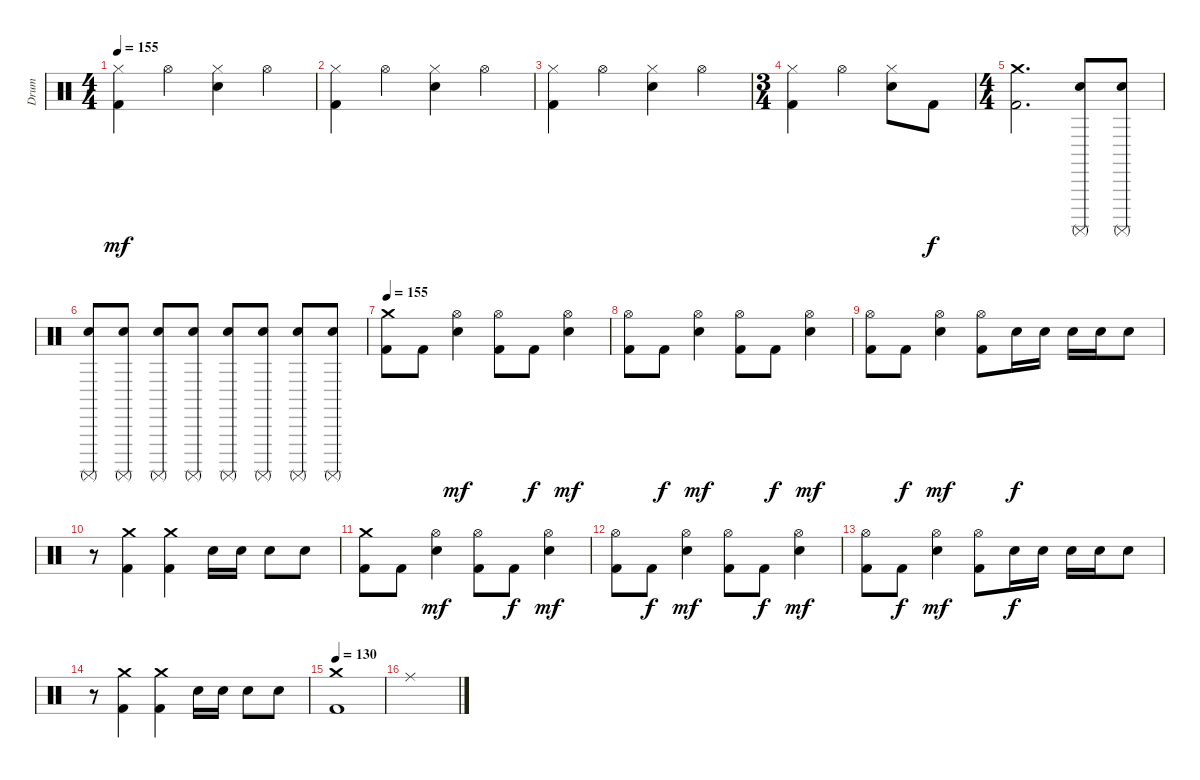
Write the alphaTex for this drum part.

\track ("Drum" "Drum") {instrument percussion}
\staff {score}
\articulation defaults
\ts (4 4)
\tempo 155
\clef neutral
\ks c
("Hi-Hat (closed)" "Kick (hit) 2").4{dy mf} "Hi-Hat (open)".4 ("Hi-Hat (closed)" "Snare (hit) 2").4 "Hi-Hat (open)".4 |
("Hi-Hat (closed)" "Kick (hit) 2").4 "Hi-Hat (open)".4 ("Hi-Hat (closed)" "Snare (hit) 2").4 "Hi-Hat (open)".4 |
("Hi-Hat (closed)" "Kick (hit) 2").4 "Hi-Hat (open)".4 ("Hi-Hat (closed)" "Snare (hit) 2").4 "Hi-Hat (open)".4 |
\ts (3 4)
("Hi-Hat (closed)" "Kick (hit) 2").4 "Hi-Hat (open)".4 ("Hi-Hat (closed)" "Snare (hit) 2").8 "Kick (hit) 2".8{dy f} |
\ts (4 4)
("Crash medium (hit)" "Kick (hit) 2").2{d} ("Surdo (mute)" "Snare (hit) 2").8 ("Surdo (mute)" "Snare (hit) 2").8 |
("Surdo (mute)" "Snare (hit) 2").8 ("Surdo (mute)" "Snare (hit) 2").8 ("Surdo (mute)" "Snare (hit) 2").8 ("Surdo (mute)" "Snare (hit) 2").8 ("Surdo (mute)" "Snare (hit) 2").8 ("Surdo (mute)" "Snare (hit) 2").8 ("Surdo (mute)" "Snare (hit) 2").8 ("Surdo (mute)" "Snare (hit) 2").8 |
\tempo 155
("Crash medium (hit)" "Kick (hit) 2").8 "Kick (hit) 2".8 ("Hi-Hat (open)" "Snare (hit) 2").4{dy mf} ("Hi-Hat (open)" "Kick (hit) 2").8 "Kick (hit) 2".8{dy f} ("Hi-Hat (open)" "Snare (hit) 2").4{dy mf} |
("Hi-Hat (open)" "Kick (hit) 2").8 "Kick (hit) 2".8{dy f} ("Hi-Hat (open)" "Snare (hit) 2").4{dy mf} ("Hi-Hat (open)" "Kick (hit) 2").8 "Kick (hit) 2".8{dy f} ("Hi-Hat (open)" "Snare (hit) 2").4{dy mf} |
("Hi-Hat (open)" "Kick (hit) 2").8 "Kick (hit) 2".8{dy f} ("Hi-Hat (open)" "Snare (hit) 2").4{dy mf} ("Hi-Hat (open)" "Kick (hit) 2").8 "Snare (hit) 2".16{dy f} "Snare (hit) 2".16 "Snare (hit) 2".16 "Snare (hit) 2".16 "Snare (hit) 2".8 |
r.8 ("Crash medium (hit)" "Kick (hit) 2").4 ("Crash medium (hit)" "Kick (hit) 2").4 "Snare (hit) 2".16 "Snare (hit) 2".16 "Snare (hit) 2".8 "Snare (hit) 2".8 |
("Crash medium (hit)" "Kick (hit) 2").8 "Kick (hit) 2".8 ("Hi-Hat (open)" "Snare (hit) 2").4{dy mf} ("Hi-Hat (open)" "Kick (hit) 2").8 "Kick (hit) 2".8{dy f} ("Hi-Hat (open)" "Snare (hit) 2").4{dy mf} |
("Hi-Hat (open)" "Kick (hit) 2").8 "Kick (hit) 2".8{dy f} ("Hi-Hat (open)" "Snare (hit) 2").4{dy mf} ("Hi-Hat (open)" "Kick (hit) 2").8 "Kick (hit) 2".8{dy f} ("Hi-Hat (open)" "Snare (hit) 2").4{dy mf} |
("Hi-Hat (open)" "Kick (hit) 2").8 "Kick (hit) 2".8{dy f} ("Hi-Hat (open)" "Snare (hit) 2").4{dy mf} ("Hi-Hat (open)" "Kick (hit) 2").8 "Snare (hit) 2".16{dy f} "Snare (hit) 2".16 "Snare (hit) 2".16 "Snare (hit) 2".16 "Snare (hit) 2".8 |
r.8 ("Crash medium (hit)" "Kick (hit) 2").4 ("Crash medium (hit)" "Kick (hit) 2").4 "Snare (hit) 2".16 "Snare (hit) 2".16 "Snare (hit) 2".8 "Snare (hit) 2".8 |
\tempo 130
("Crash medium (hit)" "Kick (hit) 2").1 |
"Ride (middle)".1
